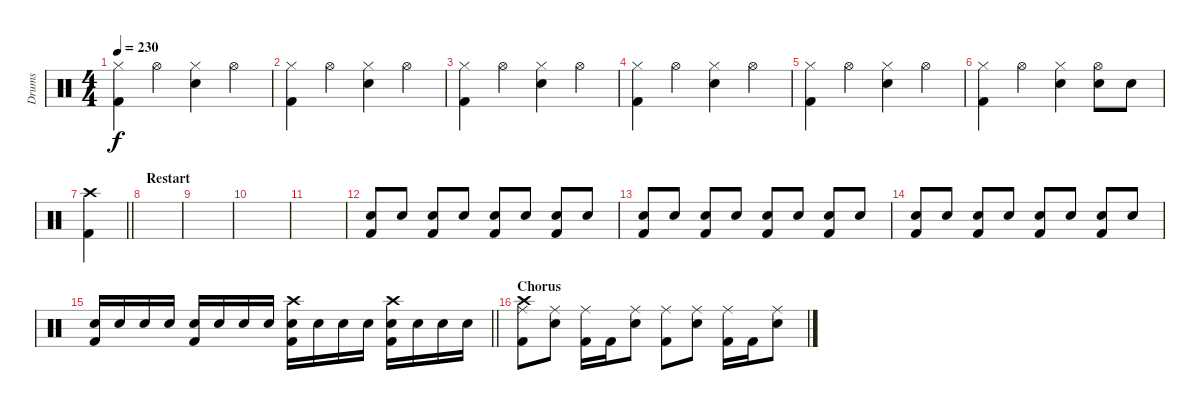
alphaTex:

\track ("Drums" "Drums") {instrument percussion}
\staff {score}
\articulation defaults
\ts (4 4)
\tempo 230
\clef neutral
\ks c
("Hi-Hat (closed)" "Kick (hit) 2").4{dy f} "Hi-Hat (open)".4 ("Hi-Hat (closed)" "Snare (hit) 2").4 "Hi-Hat (open)".4 |
("Hi-Hat (closed)" "Kick (hit) 2").4 "Hi-Hat (open)".4 ("Hi-Hat (closed)" "Snare (hit) 2").4 "Hi-Hat (open)".4 |
("Hi-Hat (closed)" "Kick (hit) 2").4 "Hi-Hat (open)".4 ("Hi-Hat (closed)" "Snare (hit) 2").4 "Hi-Hat (open)".4 |
("Hi-Hat (closed)" "Kick (hit) 2").4 "Hi-Hat (open)".4 ("Hi-Hat (closed)" "Snare (hit) 2").4 "Hi-Hat (open)".4 |
("Hi-Hat (closed)" "Kick (hit) 2").4 "Hi-Hat (open)".4 ("Hi-Hat (closed)" "Snare (hit) 2").4 "Hi-Hat (open)".4 |
("Hi-Hat (closed)" "Kick (hit) 2").4 "Hi-Hat (open)".4 ("Hi-Hat (closed)" "Snare (hit) 2").4 ("Hi-Hat (open)" "Snare (hit) 2").8 "Snare (hit) 2".8 |
\barLineRight lightlight
("Crash high (hit)" "Kick (hit) 2").4 |
\section ("" "Restart")
|
|
|
|
("Snare (hit) 2" "Kick (hit) 2").8 "Snare (hit) 2".8 ("Snare (hit) 2" "Kick (hit) 2").8 "Snare (hit) 2".8 ("Snare (hit) 2" "Kick (hit) 2").8 "Snare (hit) 2".8 ("Snare (hit) 2" "Kick (hit) 2").8 "Snare (hit) 2".8 |
("Snare (hit) 2" "Kick (hit) 2").8 "Snare (hit) 2".8 ("Snare (hit) 2" "Kick (hit) 2").8 "Snare (hit) 2".8 ("Snare (hit) 2" "Kick (hit) 2").8 "Snare (hit) 2".8 ("Snare (hit) 2" "Kick (hit) 2").8 "Snare (hit) 2".8 |
("Snare (hit) 2" "Kick (hit) 2").8 "Snare (hit) 2".8 ("Snare (hit) 2" "Kick (hit) 2").8 "Snare (hit) 2".8 ("Snare (hit) 2" "Kick (hit) 2").8 "Snare (hit) 2".8 ("Snare (hit) 2" "Kick (hit) 2").8 "Snare (hit) 2".8 |
\barLineRight lightlight
("Snare (hit) 2" "Kick (hit) 2").16 "Snare (hit) 2".16 "Snare (hit) 2".16 "Snare (hit) 2".16 ("Snare (hit) 2" "Kick (hit) 2").16 "Snare (hit) 2".16 "Snare (hit) 2".16 "Snare (hit) 2".16 ("Crash high (hit)" "Snare (hit) 2" "Kick (hit) 2").16 "Snare (hit) 2".16 "Snare (hit) 2".16 "Snare (hit) 2".16 ("Crash high (hit)" "Snare (hit) 2" "Kick (hit) 2").16 "Snare (hit) 2".16 "Snare (hit) 2".16 "Snare (hit) 2".16 |
\section ("" "Chorus")
("Crash high (hit)" "Ride (middle)" "Kick (hit) 2").8 ("Ride (middle)" "Snare (hit) 2").8 ("Ride (middle)" "Kick (hit) 2").16 "Kick (hit) 2".16 ("Ride (middle)" "Snare (hit) 2").8 ("Ride (middle)" "Kick (hit) 2").8 ("Ride (middle)" "Snare (hit) 2").8 ("Ride (middle)" "Kick (hit) 2").16 "Kick (hit) 2".16 ("Ride (middle)" "Snare (hit) 2").8
